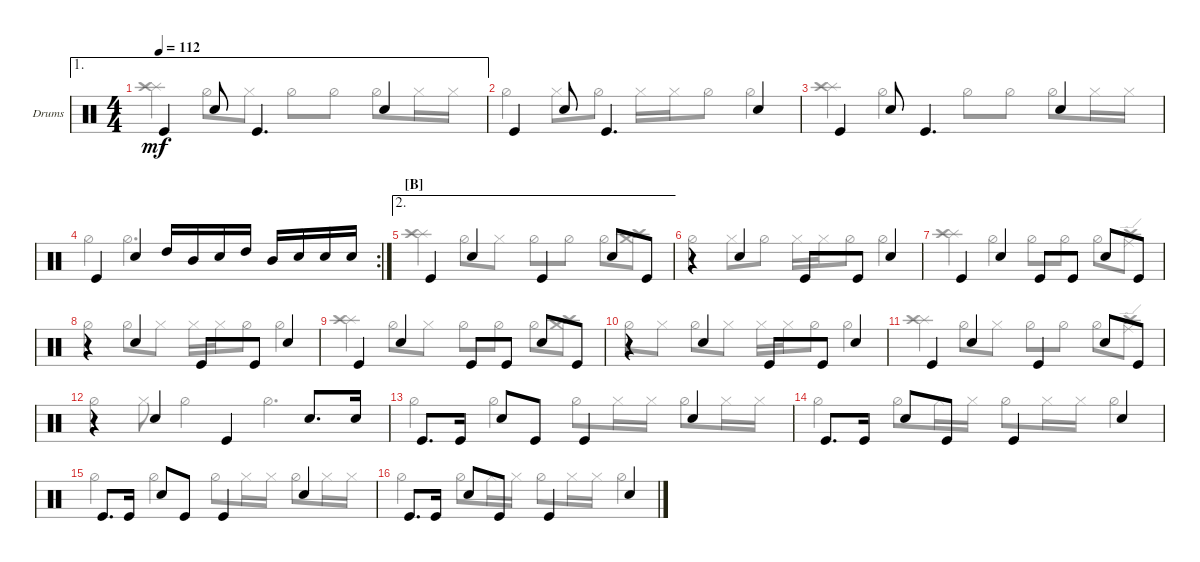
\defaultSystemsLayout 4
\bracketExtendMode groupsimilarinstruments
\firstSystemTrackNameOrientation horizontal
\otherSystemsTrackNameOrientation horizontal
\track ("Drumkit" "Drums") {multiBarRest instrument percussion}
\staff {score}
\articulation defaults
\voice
\ae 1
\ts (4 4)
\tempo 112
\clef neutral
\ks c "Kick (hit)".4{dy mf} "Snare (hit) 2".8 "Kick (hit)".4{d} "Snare (hit) 2".4
|
"Kick (hit)".4 "Snare (hit) 2".8 "Kick (hit)".4{d} "Snare (hit) 2".4 |
"Kick (hit)".4 "Snare (hit) 2".8 "Kick (hit)".4{d} "Snare (hit) 2".4 |
\rc 2 "Kick (hit)".4 "Snare (hit) 2".4 "High Tom (hit)".16 "Mid Tom (hit)".16 "Snare (hit) 2".16 "High Tom (hit)".16 "Mid Tom (hit)".16 "Snare (hit) 2".16 "Snare (hit) 2".16 "Snare (hit) 2".16
|
\ae 2
\section ("B" "")
"Kick (hit)".4 "Snare (hit) 2".4 "Kick (hit)".4 "Snare (hit) 2".8 "Kick (hit)".8 |
r.4 "Snare (hit) 2".4 "Kick (hit)".8 "Kick (hit)".8 "Snare (hit) 2".4 |
"Kick (hit)".4 "Snare (hit) 2".4 "Kick (hit)".8 "Kick (hit)".8 "Snare (hit) 2".8 "Kick (hit)".8 |
r.4 "Snare (hit) 2".4 "Kick (hit)".8 "Kick (hit)".8 "Snare (hit) 2".4 |
"Kick (hit)".4 "Snare (hit) 2".4 "Kick (hit)".8 "Kick (hit)".8 "Snare (hit) 2".8 "Kick (hit)".8 |
r.4 "Snare (hit) 2".4 "Kick (hit)".8 "Kick (hit)".8 "Snare (hit) 2".4 |
"Kick (hit)".4 "Snare (hit) 2".4 "Kick (hit)".4 "Snare (hit) 2".8 "Kick (hit)".8 |
r.4 "Snare (hit) 2".4 "Kick (hit)".4 "Snare (hit) 2".8{d} "Snare (hit) 2".16 |
"Kick (hit)".8{d} "Kick (hit)".16 "Snare (hit) 2".8 "Kick (hit)".8 "Kick (hit)".4 "Snare (hit) 2".4 |
"Kick (hit)".8{d} "Kick (hit)".16 "Snare (hit) 2".8 "Kick (hit)".8 "Kick (hit)".4 "Snare (hit) 2".4 |
"Kick (hit)".8{d} "Kick (hit)".16 "Snare (hit) 2".8 "Kick (hit)".8 "Kick (hit)".4 "Snare (hit) 2".4 |
"Kick (hit)".8{d} "Kick (hit)".16 "Snare (hit) 2".8 "Kick (hit)".8 "Kick (hit)".4 "Snare (hit) 2".4
\voice
\clef neutral
\ottava regular
\simile none
\ks c
("Splash (hit)" "Crash high (hit)").4{dy mf} "Hi-Hat (half)".8 "Hi-Hat (closed)".8 "Hi-Hat (half)".8 "Hi-Hat (half)".8 "Hi-Hat (half)".8 "Hi-Hat (closed)".16 "Hi-Hat (closed)".16 |
"Hi-Hat (half)".4 "Hi-Hat (closed)".8 "Hi-Hat (half)".8 "Hi-Hat (closed)".16 "Hi-Hat (closed)".16 "Hi-Hat (half)".8 "Hi-Hat (half)".4 |
("Splash (hit)" "Crash high (hit)").4 "Hi-Hat (half)".4 "Hi-Hat (half)".8 "Hi-Hat (half)".8 "Hi-Hat (half)".8 "Hi-Hat (closed)".16 "Hi-Hat (closed)".16 |
"Hi-Hat (half)".4 "Hi-Hat (half)".2{d} |
("Splash (hit)" "Crash high (hit)").4 "Hi-Hat (half)".8 "Hi-Hat (closed)".8 "Hi-Hat (half)".8 "Hi-Hat (half)".8 "Hi-Hat (half)".8 ("Crash medium (hit)" "Crash high (hit)").8 |
"Hi-Hat (half)".4 "Hi-Hat (closed)".8 "Hi-Hat (half)".8 "Hi-Hat (closed)".16 "Hi-Hat (closed)".16 "Hi-Hat (half)".8 "Hi-Hat (half)".4 |
("Splash (hit)" "Crash high (hit)").4 "Hi-Hat (half)".4 "Hi-Hat (half)".8 "Hi-Hat (half)".8 "Hi-Hat (half)".8 ("Crash high (hit)" "Ride (edge)").8 |
"Hi-Hat (half)".4 "Hi-Hat (half)".8 "Hi-Hat (closed)".8 "Hi-Hat (closed)".16 "Hi-Hat (closed)".16 "Hi-Hat (half)".8 "Hi-Hat (half)".4 |
("Splash (hit)" "Crash high (hit)").4 "Hi-Hat (half)".8 "Hi-Hat (closed)".8 "Hi-Hat (half)".8 "Hi-Hat (half)".8 "Hi-Hat (half)".8 ("Crash medium (hit)" "Crash high (hit)").8 |
"Hi-Hat (half)".8 "Hi-Hat (closed)".8 "Hi-Hat (half)".8 "Hi-Hat (closed)".8 "Hi-Hat (closed)".16 "Hi-Hat (closed)".16 "Hi-Hat (half)".8 "Hi-Hat (half)".4 |
("Splash (hit)" "Crash high (hit)").4 "Hi-Hat (half)".8 "Hi-Hat (closed)".8 "Hi-Hat (half)".8 "Hi-Hat (half)".8 "Hi-Hat (half)".8 ("Crash high (hit)" "Ride (edge)").8 |
"Hi-Hat (half)".4 "Hi-Hat (closed)".8 "Hi-Hat (half)".4 "Hi-Hat (half)".4{d} |
"Hi-Hat (half)".4 "Hi-Hat (half)".4 "Hi-Hat (half)".8 "Hi-Hat (closed)".16 "Hi-Hat (closed)".16 "Hi-Hat (half)".8 "Hi-Hat (closed)".16 "Hi-Hat (closed)".16 |
"Hi-Hat (half)".4 "Hi-Hat (half)".8 "Hi-Hat (closed)".16 "Hi-Hat (closed)".16 "Hi-Hat (half)".8 "Hi-Hat (closed)".16 "Hi-Hat (closed)".16 "Hi-Hat (half)".4 |
"Hi-Hat (half)".4 "Hi-Hat (half)".4 "Hi-Hat (half)".8 "Hi-Hat (closed)".16 "Hi-Hat (closed)".16 "Hi-Hat (half)".8 "Hi-Hat (closed)".16 "Hi-Hat (closed)".16 |
"Hi-Hat (half)".4 "Hi-Hat (half)".8 "Hi-Hat (closed)".16 "Hi-Hat (closed)".16 "Hi-Hat (half)".8 "Hi-Hat (closed)".16 "Hi-Hat (closed)".16 "Hi-Hat (half)".4
